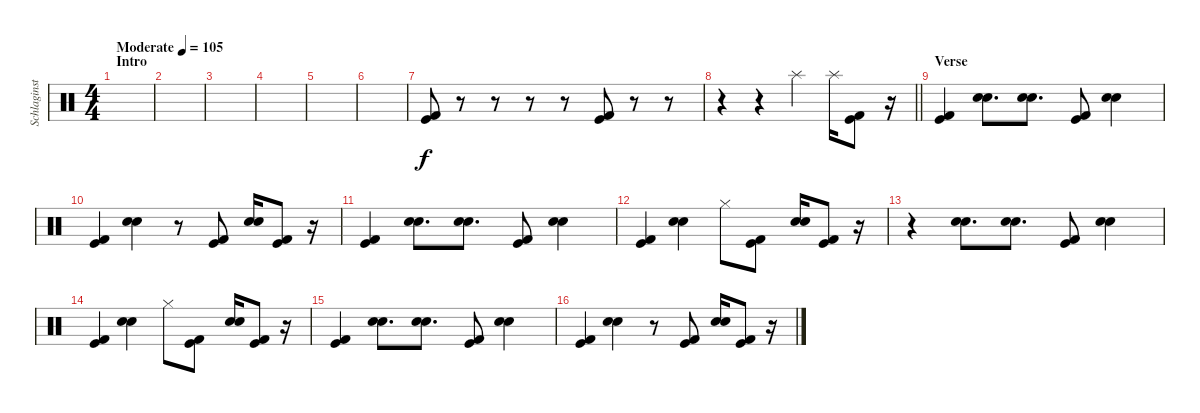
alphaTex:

\track ("Schlaginstrumente - Auswahl" "Schlaginst") {instrument percussion}
\staff {score}
\articulation defaults
\ts (4 4)
\section ("" "Intro")
\tempo (105 "Moderate")
\clef neutral
\ks c
|
|
|
|
|
|
("Kick (hit)" "Kick (hit) 2").8 r.8 r.8 r.8 r.8 ("Kick (hit)" "Kick (hit) 2").8 r.8 r.8 |
\barLineRight lightlight
r.4 r.4 "Splash (hit)".4 "Splash (hit)".16 ("Kick (hit)" "Kick (hit) 2").8 r.16 |
\section ("" "Verse")
("Kick (hit)" "Kick (hit) 2").4 ("Electric Snare (hit)" "Snare (hit) 2").8{d} ("Electric Snare (hit)" "Snare (hit) 2").8{d} ("Kick (hit) 2" "Kick (hit)").8 ("Snare (hit) 2" "Electric Snare (hit)").4 |
("Kick (hit)" "Kick (hit) 2").4 ("Snare (hit) 2" "Electric Snare (hit)").4 r.8 ("Kick (hit) 2" "Kick (hit)").8 ("Snare (hit) 2" "Electric Snare (hit)").16 ("Kick (hit)" "Kick (hit) 2").8 r.16 |
("Kick (hit)" "Kick (hit) 2").4 ("Electric Snare (hit)" "Snare (hit) 2").8{d} ("Electric Snare (hit)" "Snare (hit) 2").8{d} ("Kick (hit) 2" "Kick (hit)").8 ("Snare (hit) 2" "Electric Snare (hit)").4 |
("Kick (hit)" "Kick (hit) 2").4 ("Snare (hit) 2" "Electric Snare (hit)").4 "Hi-Hat (closed)".8 ("Kick (hit) 2" "Kick (hit)").8 ("Snare (hit) 2" "Electric Snare (hit)").16 ("Kick (hit)" "Kick (hit) 2").8 r.16 |
r.4 ("Electric Snare (hit)" "Snare (hit) 2").8{d} ("Electric Snare (hit)" "Snare (hit) 2").8{d} ("Kick (hit) 2" "Kick (hit)").8 ("Snare (hit) 2" "Electric Snare (hit)").4 |
("Kick (hit)" "Kick (hit) 2").4 ("Snare (hit) 2" "Electric Snare (hit)").4 "Hi-Hat (closed)".8 ("Kick (hit) 2" "Kick (hit)").8 ("Snare (hit) 2" "Electric Snare (hit)").16 ("Kick (hit)" "Kick (hit) 2").8 r.16 |
("Kick (hit)" "Kick (hit) 2").4 ("Electric Snare (hit)" "Snare (hit) 2").8{d} ("Electric Snare (hit)" "Snare (hit) 2").8{d} ("Kick (hit) 2" "Kick (hit)").8 ("Snare (hit) 2" "Electric Snare (hit)").4 |
("Kick (hit)" "Kick (hit) 2").4 ("Snare (hit) 2" "Electric Snare (hit)").4 r.8 ("Kick (hit) 2" "Kick (hit)").8 ("Snare (hit) 2" "Electric Snare (hit)").16 ("Kick (hit)" "Kick (hit) 2").8 r.16
